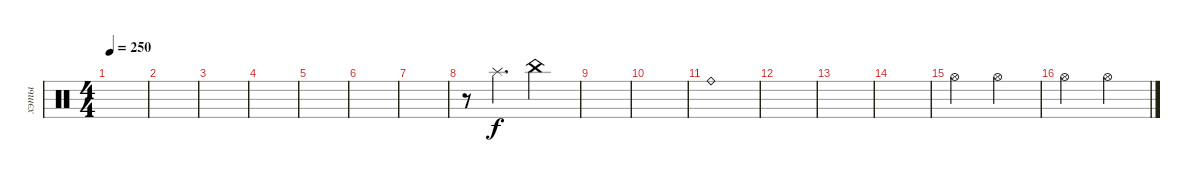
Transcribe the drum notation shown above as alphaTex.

\track ("хэты" "хэты") {instrument percussion}
\staff {score}
\articulation defaults
\ts (4 4)
\tempo 250
\clef neutral
\ks c
|
|
|
|
|
|
|
r.8 "Splash (hit)".4{d} "China (hit)".2 |
|
|
"Ride (bell)".1 |
|
|
|
"Hi-Hat (open)".2 "Hi-Hat (open)".2 |
"Hi-Hat (open)".2 "Hi-Hat (open)".2
